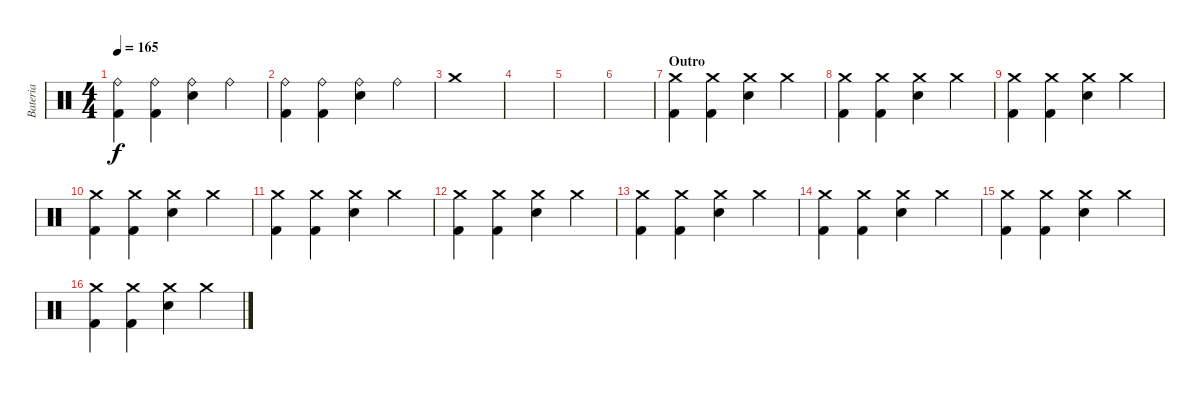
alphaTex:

\track ("Bateria" "Bateria") {instrument percussion}
\staff {score}
\articulation defaults
\ts (4 4)
\tempo 165
\clef neutral
\ks c
("Ride (bell)" "Kick (hit) 2").4{dy f} ("Ride (bell)" "Kick (hit) 2").4 ("Ride (bell)" "Electric Snare (hit)").4 "Ride (bell)".4 |
("Ride (bell)" "Kick (hit) 2").4 ("Ride (bell)" "Kick (hit) 2").4 ("Ride (bell)" "Electric Snare (hit)").4 "Ride (bell)".4 |
"Crash medium (hit)".1 |
|
|
|
\section ("" "Outro")
("Crash medium (hit)" "Kick (hit) 2").4{volume 9} ("Crash medium (hit)" "Kick (hit) 2").4 ("Crash medium (hit)" "Electric Snare (hit)").4 "Crash medium (hit)".4 |
("Crash medium (hit)" "Kick (hit) 2").4 ("Crash medium (hit)" "Kick (hit) 2").4 ("Crash medium (hit)" "Electric Snare (hit)").4 "Crash medium (hit)".4 |
("Crash medium (hit)" "Kick (hit) 2").4 ("Crash medium (hit)" "Kick (hit) 2").4 ("Crash medium (hit)" "Electric Snare (hit)").4 "Crash medium (hit)".4 |
("Crash medium (hit)" "Kick (hit) 2").4 ("Crash medium (hit)" "Kick (hit) 2").4 ("Crash medium (hit)" "Electric Snare (hit)").4 "Crash medium (hit)".4 |
("Crash medium (hit)" "Kick (hit) 2").4 ("Crash medium (hit)" "Kick (hit) 2").4 ("Crash medium (hit)" "Electric Snare (hit)").4 "Crash medium (hit)".4 |
("Crash medium (hit)" "Kick (hit) 2").4 ("Crash medium (hit)" "Kick (hit) 2").4 ("Crash medium (hit)" "Electric Snare (hit)").4 "Crash medium (hit)".4 |
("Crash medium (hit)" "Kick (hit) 2").4 ("Crash medium (hit)" "Kick (hit) 2").4 ("Crash medium (hit)" "Electric Snare (hit)").4 "Crash medium (hit)".4 |
("Crash medium (hit)" "Kick (hit) 2").4 ("Crash medium (hit)" "Kick (hit) 2").4 ("Crash medium (hit)" "Electric Snare (hit)").4 "Crash medium (hit)".4 |
("Crash medium (hit)" "Kick (hit) 2").4 ("Crash medium (hit)" "Kick (hit) 2").4 ("Crash medium (hit)" "Electric Snare (hit)").4 "Crash medium (hit)".4 |
("Crash medium (hit)" "Kick (hit) 2").4 ("Crash medium (hit)" "Kick (hit) 2").4 ("Crash medium (hit)" "Electric Snare (hit)").4 "Crash medium (hit)".4
